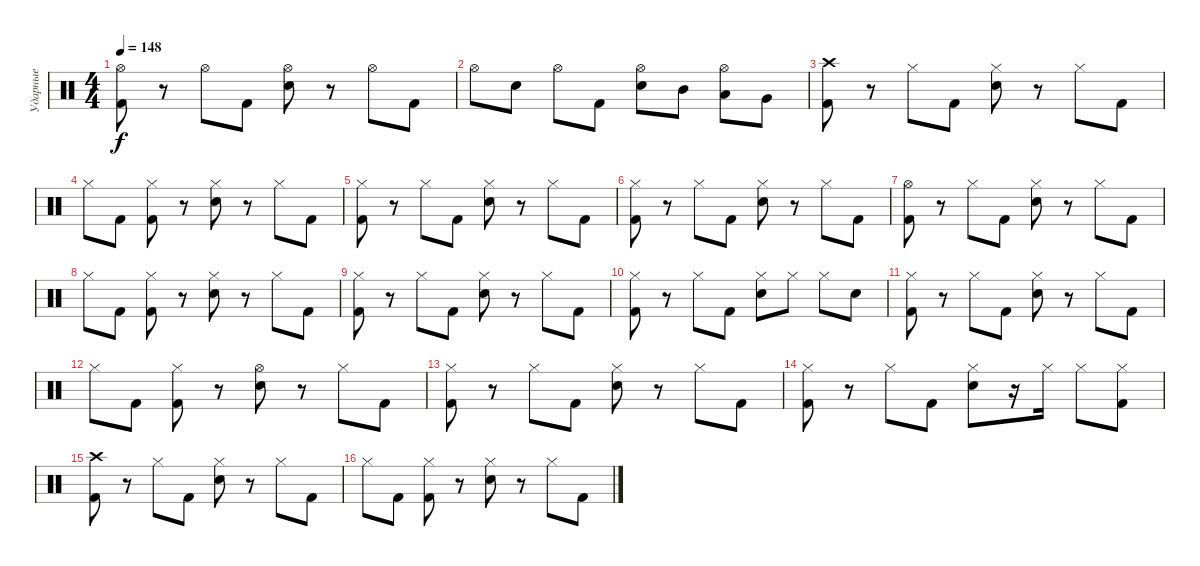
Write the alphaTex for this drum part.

\track ("Ударные" "Ударные") {instrument percussion}
\staff {score}
\articulation defaults
\ts (4 4)
\tempo 148
\clef neutral
\ks c
("Hi-Hat (open)" "Kick (hit) 2").8{dy f} r.8 "Hi-Hat (open)".8 "Kick (hit) 2".8 ("Hi-Hat (open)" "Electric Snare (hit)").8 r.8 "Hi-Hat (open)".8 "Kick (hit) 2".8 |
"Hi-Hat (open)".8 "Electric Snare (hit)".8 "Hi-Hat (open)".8 "Kick (hit) 2".8 ("Hi-Hat (open)" "Electric Snare (hit)").8 "Mid Tom (hit)".8 ("Hi-Hat (open)" "Low Tom (hit)").8 "Very Low Tom (hit)".8 |
("Crash high (hit)" "Kick (hit) 2").8 r.8 "Hi-Hat (closed)".8 "Kick (hit) 2".8 ("Hi-Hat (closed)" "Electric Snare (hit)").8 r.8 "Hi-Hat (closed)".8 "Kick (hit) 2".8 |
"Hi-Hat (closed)".8 "Kick (hit) 2".8 ("Hi-Hat (closed)" "Kick (hit) 2").8 r.8 ("Hi-Hat (closed)" "Electric Snare (hit)").8 r.8 "Hi-Hat (closed)".8 "Kick (hit) 2".8 |
("Hi-Hat (closed)" "Kick (hit) 2").8 r.8 "Hi-Hat (closed)".8 "Kick (hit) 2".8 ("Hi-Hat (closed)" "Electric Snare (hit)").8 r.8 "Hi-Hat (closed)".8 "Kick (hit) 2".8 |
("Hi-Hat (closed)" "Kick (hit) 2").8 r.8 "Hi-Hat (closed)".8 "Kick (hit) 2".8 ("Hi-Hat (closed)" "Electric Snare (hit)").8 r.8 "Hi-Hat (closed)".8 "Kick (hit) 2".8 |
("Hi-Hat (open)" "Kick (hit) 2").8 r.8 "Hi-Hat (closed)".8 "Kick (hit) 2".8 ("Hi-Hat (closed)" "Electric Snare (hit)").8 r.8 "Hi-Hat (closed)".8 "Kick (hit) 2".8 |
"Hi-Hat (closed)".8 "Kick (hit) 2".8 ("Hi-Hat (closed)" "Kick (hit) 2").8 r.8 ("Hi-Hat (closed)" "Electric Snare (hit)").8 r.8 "Hi-Hat (closed)".8 "Kick (hit) 2".8 |
("Hi-Hat (closed)" "Kick (hit) 2").8 r.8 "Hi-Hat (closed)".8 "Kick (hit) 2".8 ("Hi-Hat (closed)" "Electric Snare (hit)").8 r.8 "Hi-Hat (closed)".8 "Kick (hit) 2".8 |
("Hi-Hat (closed)" "Kick (hit) 2").8 r.8 "Hi-Hat (closed)".8 "Kick (hit) 2".8 ("Hi-Hat (closed)" "Electric Snare (hit)").8 "Hi-Hat (closed)".8 "Hi-Hat (closed)".8 "Electric Snare (hit)".8 |
("Hi-Hat (closed)" "Kick (hit) 2").8 r.8 "Hi-Hat (closed)".8 "Kick (hit) 2".8 ("Hi-Hat (closed)" "Electric Snare (hit)").8 r.8 "Hi-Hat (closed)".8 "Kick (hit) 2".8 |
"Hi-Hat (closed)".8 "Kick (hit) 2".8 ("Hi-Hat (closed)" "Kick (hit) 2").8 r.8 ("Hi-Hat (open)" "Electric Snare (hit)").8 r.8 "Hi-Hat (closed)".8 "Kick (hit) 2".8 |
("Hi-Hat (closed)" "Kick (hit) 2").8 r.8 "Hi-Hat (closed)".8 "Kick (hit) 2".8 ("Hi-Hat (closed)" "Electric Snare (hit)").8 r.8 "Hi-Hat (closed)".8 "Kick (hit) 2".8 |
("Hi-Hat (closed)" "Kick (hit) 2").8 r.8 "Hi-Hat (closed)".8 "Kick (hit) 2".8 ("Hi-Hat (closed)" "Electric Snare (hit)").8 r.16 "Hi-Hat (closed)".16 "Hi-Hat (closed)".8 ("Hi-Hat (closed)" "Kick (hit) 2").8 |
("Crash high (hit)" "Kick (hit) 2").8 r.8 "Hi-Hat (closed)".8 "Kick (hit) 2".8 ("Hi-Hat (closed)" "Electric Snare (hit)").8 r.8 "Hi-Hat (closed)".8 "Kick (hit) 2".8 |
"Hi-Hat (closed)".8 "Kick (hit) 2".8 ("Hi-Hat (closed)" "Kick (hit) 2").8 r.8 ("Hi-Hat (closed)" "Electric Snare (hit)").8 r.8 "Hi-Hat (closed)".8 "Kick (hit) 2".8
